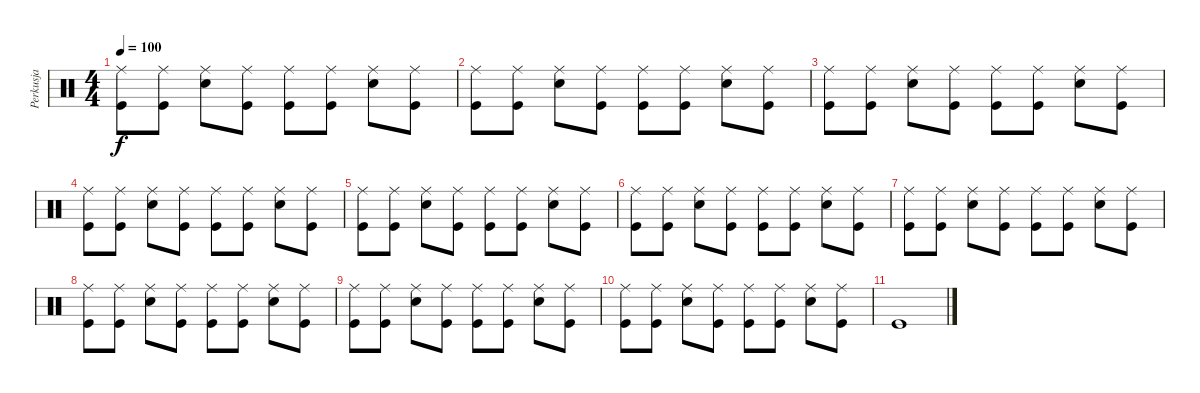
\track ("Perkusja" "Perkusja") {instrument percussion}
\staff {score}
\articulation defaults
\ts (4 4)
\tempo 100
\clef neutral
\ks c
("Ride (middle)" "Kick (hit)").8{dy f} ("Ride (middle)" "Kick (hit)").8 ("Ride (middle)" "Electric Snare (hit)").8 ("Ride (middle)" "Kick (hit)").8 ("Ride (middle)" "Kick (hit)").8 ("Ride (middle)" "Kick (hit)").8 ("Ride (middle)" "Electric Snare (hit)").8 ("Ride (middle)" "Kick (hit)").8 |
("Ride (middle)" "Kick (hit)").8 ("Ride (middle)" "Kick (hit)").8 ("Ride (middle)" "Electric Snare (hit)").8 ("Ride (middle)" "Kick (hit)").8 ("Ride (middle)" "Kick (hit)").8 ("Ride (middle)" "Kick (hit)").8 ("Ride (middle)" "Electric Snare (hit)").8 ("Ride (middle)" "Kick (hit)").8 |
("Ride (middle)" "Kick (hit)").8 ("Ride (middle)" "Kick (hit)").8 ("Ride (middle)" "Electric Snare (hit)").8 ("Ride (middle)" "Kick (hit)").8 ("Ride (middle)" "Kick (hit)").8 ("Ride (middle)" "Kick (hit)").8 ("Ride (middle)" "Electric Snare (hit)").8 ("Ride (middle)" "Kick (hit)").8 |
("Ride (middle)" "Kick (hit)").8 ("Ride (middle)" "Kick (hit)").8 ("Ride (middle)" "Electric Snare (hit)").8 ("Ride (middle)" "Kick (hit)").8 ("Ride (middle)" "Kick (hit)").8 ("Ride (middle)" "Kick (hit)").8 ("Ride (middle)" "Electric Snare (hit)").8 ("Ride (middle)" "Kick (hit)").8 |
("Ride (middle)" "Kick (hit)").8 ("Ride (middle)" "Kick (hit)").8 ("Ride (middle)" "Electric Snare (hit)").8 ("Ride (middle)" "Kick (hit)").8 ("Ride (middle)" "Kick (hit)").8 ("Ride (middle)" "Kick (hit)").8 ("Ride (middle)" "Electric Snare (hit)").8 ("Ride (middle)" "Kick (hit)").8 |
("Ride (middle)" "Kick (hit)").8 ("Ride (middle)" "Kick (hit)").8 ("Ride (middle)" "Electric Snare (hit)").8 ("Ride (middle)" "Kick (hit)").8 ("Ride (middle)" "Kick (hit)").8 ("Ride (middle)" "Kick (hit)").8 ("Ride (middle)" "Electric Snare (hit)").8 ("Ride (middle)" "Kick (hit)").8 |
("Ride (middle)" "Kick (hit)").8 ("Ride (middle)" "Kick (hit)").8 ("Ride (middle)" "Electric Snare (hit)").8 ("Ride (middle)" "Kick (hit)").8 ("Ride (middle)" "Kick (hit)").8 ("Ride (middle)" "Kick (hit)").8 ("Ride (middle)" "Electric Snare (hit)").8 ("Ride (middle)" "Kick (hit)").8 |
("Ride (middle)" "Kick (hit)").8 ("Ride (middle)" "Kick (hit)").8 ("Ride (middle)" "Electric Snare (hit)").8 ("Ride (middle)" "Kick (hit)").8 ("Ride (middle)" "Kick (hit)").8 ("Ride (middle)" "Kick (hit)").8 ("Ride (middle)" "Electric Snare (hit)").8 ("Ride (middle)" "Kick (hit)").8 |
("Ride (middle)" "Kick (hit)").8 ("Ride (middle)" "Kick (hit)").8 ("Ride (middle)" "Electric Snare (hit)").8 ("Ride (middle)" "Kick (hit)").8 ("Ride (middle)" "Kick (hit)").8 ("Ride (middle)" "Kick (hit)").8 ("Ride (middle)" "Electric Snare (hit)").8 ("Ride (middle)" "Kick (hit)").8 |
("Ride (middle)" "Kick (hit)").8 ("Ride (middle)" "Kick (hit)").8 ("Ride (middle)" "Electric Snare (hit)").8 ("Ride (middle)" "Kick (hit)").8 ("Ride (middle)" "Kick (hit)").8 ("Ride (middle)" "Kick (hit)").8 ("Ride (middle)" "Electric Snare (hit)").8 ("Ride (middle)" "Kick (hit)").8 |
"Kick (hit)".1
